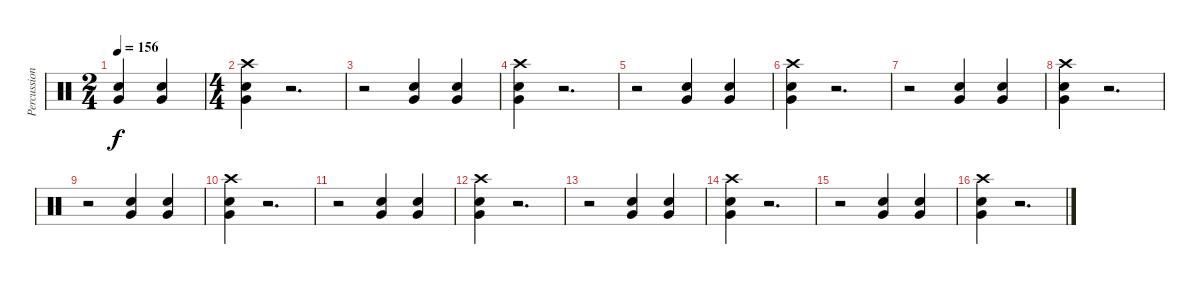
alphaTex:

\track ("Percussions" "Percussion") {instrument percussion}
\staff {score}
\articulation defaults
\ts (2 4)
\tempo 156
\clef neutral
\ks c
("Very Low Tom (hit)" "Electric Snare (hit)").4{dy f} ("Very Low Tom (hit)" "Electric Snare (hit)").4 |
\ts (4 4)
("Very Low Tom (hit)" "Crash high (hit)" "Electric Snare (hit)").4 r.2{d} |
r.2 ("Very Low Tom (hit)" "Electric Snare (hit)").4 ("Very Low Tom (hit)" "Electric Snare (hit)").4 |
("Very Low Tom (hit)" "Crash high (hit)" "Electric Snare (hit)").4 r.2{d} |
r.2 ("Very Low Tom (hit)" "Electric Snare (hit)").4 ("Very Low Tom (hit)" "Electric Snare (hit)").4 |
("Very Low Tom (hit)" "Crash high (hit)" "Electric Snare (hit)").4 r.2{d} |
r.2 ("Very Low Tom (hit)" "Electric Snare (hit)").4 ("Very Low Tom (hit)" "Electric Snare (hit)").4 |
("Very Low Tom (hit)" "Crash high (hit)" "Electric Snare (hit)").4 r.2{d} |
r.2 ("Very Low Tom (hit)" "Electric Snare (hit)").4 ("Very Low Tom (hit)" "Electric Snare (hit)").4 |
("Very Low Tom (hit)" "Crash high (hit)" "Electric Snare (hit)").4 r.2{d} |
r.2 ("Very Low Tom (hit)" "Electric Snare (hit)").4 ("Very Low Tom (hit)" "Electric Snare (hit)").4 |
("Very Low Tom (hit)" "Crash high (hit)" "Electric Snare (hit)").4 r.2{d} |
r.2 ("Very Low Tom (hit)" "Electric Snare (hit)").4 ("Very Low Tom (hit)" "Electric Snare (hit)").4 |
("Very Low Tom (hit)" "Crash high (hit)" "Electric Snare (hit)").4 r.2{d} |
r.2 ("Very Low Tom (hit)" "Electric Snare (hit)").4 ("Very Low Tom (hit)" "Electric Snare (hit)").4 |
("Very Low Tom (hit)" "Crash high (hit)" "Electric Snare (hit)").4 r.2{d}
